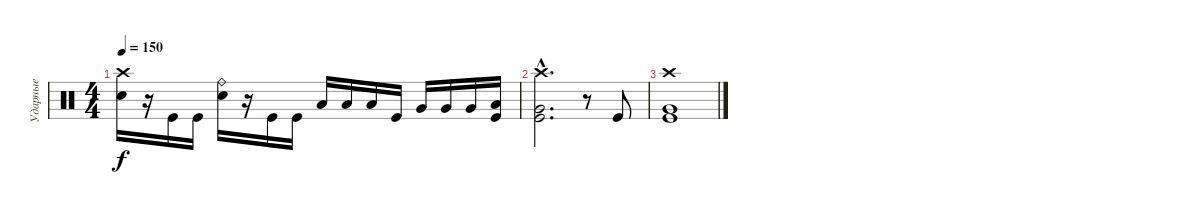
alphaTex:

\track ("Ударные" "Ударные") {instrument percussion}
\staff {score}
\articulation defaults
\ts (4 4)
\tempo 150
\clef neutral
\ks c
("Crash high (hit)" "Electric Snare (hit)").16{dy f} r.16 "Kick (hit)".16 "Kick (hit)".16 ("Ride (bell)" "Electric Snare (hit)").16 r.16 "Kick (hit)".16 "Kick (hit)".16 "Low Tom (hit)".16 "Low Tom (hit)".16 "Low Tom (hit)".16 "Kick (hit)".16 "Very Low Tom (hit)".16 "Very Low Tom (hit)".16 "Very Low Tom (hit)".16 ("Low Tom (hit)" "Kick (hit)").16 |
("Crash high (hit)"{hac} "Very Low Tom (hit)"{hac} "Kick (hit)"{hac}).2{d} r.8 "Kick (hit)".8 |
("Crash high (hit)" "Very Low Tom (hit)" "Kick (hit)").1
